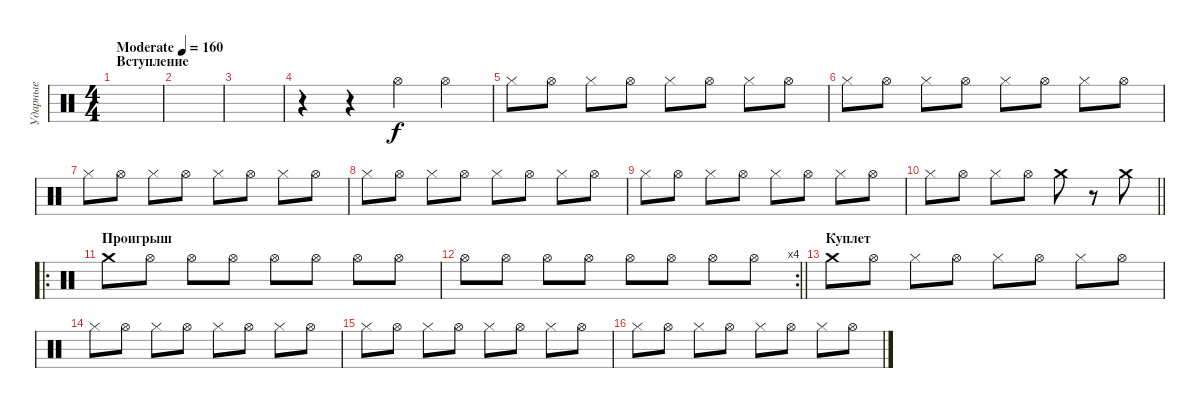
\track ("Ударные" "Ударные") {instrument percussion}
\staff {score}
\articulation defaults
\ts (4 4)
\section ("" "Вступление")
\tempo (160 "Moderate")
\clef neutral
\ks c
|
|
|
r.4 r.4 "Hi-Hat (open)".4 "Hi-Hat (open)".4 |
"Hi-Hat (closed)".8 "Hi-Hat (open)".8 "Hi-Hat (closed)".8 "Hi-Hat (open)".8 "Hi-Hat (closed)".8 "Hi-Hat (open)".8 "Hi-Hat (closed)".8 "Hi-Hat (open)".8 |
"Hi-Hat (closed)".8 "Hi-Hat (open)".8 "Hi-Hat (closed)".8 "Hi-Hat (open)".8 "Hi-Hat (closed)".8 "Hi-Hat (open)".8 "Hi-Hat (closed)".8 "Hi-Hat (open)".8 |
"Hi-Hat (closed)".8 "Hi-Hat (open)".8 "Hi-Hat (closed)".8 "Hi-Hat (open)".8 "Hi-Hat (closed)".8 "Hi-Hat (open)".8 "Hi-Hat (closed)".8 "Hi-Hat (open)".8 |
"Hi-Hat (closed)".8 "Hi-Hat (open)".8 "Hi-Hat (closed)".8 "Hi-Hat (open)".8 "Hi-Hat (closed)".8 "Hi-Hat (open)".8 "Hi-Hat (closed)".8 "Hi-Hat (open)".8 |
"Hi-Hat (closed)".8 "Hi-Hat (open)".8 "Hi-Hat (closed)".8 "Hi-Hat (open)".8 "Hi-Hat (closed)".8 "Hi-Hat (open)".8 "Hi-Hat (closed)".8 "Hi-Hat (open)".8 |
\barLineRight lightlight "Hi-Hat (closed)".8 "Hi-Hat (open)".8 "Hi-Hat (closed)".8 "Hi-Hat (open)".8 "Crash medium (hit)".8
r.8 "Crash medium (hit)".8 |
\ro
\section ("" "Проигрыш")
"Crash medium (hit)".8 "Hi-Hat (open)".8 "Hi-Hat (open)".8 "Hi-Hat (open)".8 "Hi-Hat (open)".8 "Hi-Hat (open)".8 "Hi-Hat (open)".8 "Hi-Hat (open)".8 |
\rc 4
\barLineRight lightlight "Hi-Hat (open)".8 "Hi-Hat (open)".8 "Hi-Hat (open)".8 "Hi-Hat (open)".8 "Hi-Hat (open)".8 "Hi-Hat (open)".8 "Hi-Hat (open)".8 "Hi-Hat (open)".8
|
\section ("" "Куплет")
"Crash medium (hit)".8 "Hi-Hat (open)".8 "Hi-Hat (closed)".8 "Hi-Hat (open)".8 "Hi-Hat (closed)".8 "Hi-Hat (open)".8 "Hi-Hat (closed)".8 "Hi-Hat (open)".8 |
"Hi-Hat (closed)".8 "Hi-Hat (open)".8 "Hi-Hat (closed)".8 "Hi-Hat (open)".8 "Hi-Hat (closed)".8 "Hi-Hat (open)".8 "Hi-Hat (closed)".8 "Hi-Hat (open)".8 |
"Hi-Hat (closed)".8 "Hi-Hat (open)".8 "Hi-Hat (closed)".8 "Hi-Hat (open)".8 "Hi-Hat (closed)".8 "Hi-Hat (open)".8 "Hi-Hat (closed)".8 "Hi-Hat (open)".8 |
"Hi-Hat (closed)".8 "Hi-Hat (open)".8 "Hi-Hat (closed)".8 "Hi-Hat (open)".8 "Hi-Hat (closed)".8 "Hi-Hat (open)".8 "Hi-Hat (closed)".8 "Hi-Hat (open)".8
